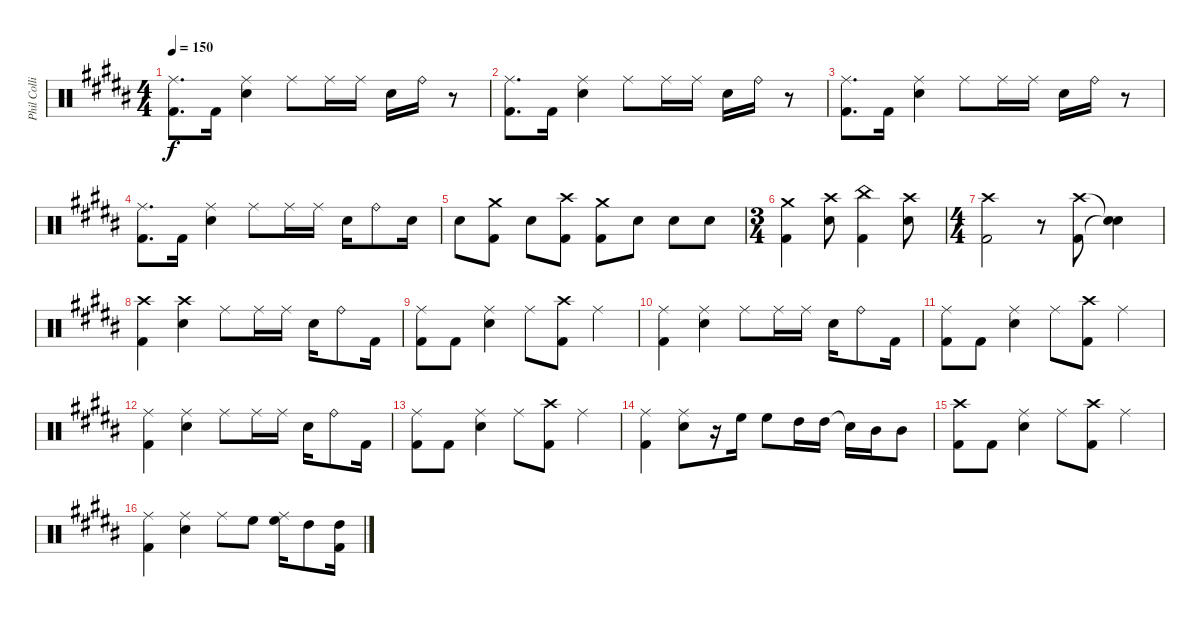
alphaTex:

\track ("Phil Collins [Drums]" "Phil Colli") {instrument percussion}
\staff {score}
\articulation defaults
\ts (4 4)
\tempo 150
\clef neutral
\ks b
("Ride (middle)" "Kick (hit) 2").8{d dy f} "Kick (hit) 2".16 ("Ride (middle)" "Electric Snare (hit)").4 "Ride (middle)".8 "Ride (middle)".16 "Ride (middle)".16 "Electric Snare (hit)".16 "Ride (bell)".16 r.8 |
("Ride (middle)" "Kick (hit) 2").8{d} "Kick (hit) 2".16 ("Ride (middle)" "Electric Snare (hit)").4 "Ride (middle)".8 "Ride (middle)".16 "Ride (middle)".16 "Electric Snare (hit)".16 "Ride (bell)".16 r.8 |
("Ride (middle)" "Kick (hit) 2").8{d} "Kick (hit) 2".16 ("Ride (middle)" "Electric Snare (hit)").4 "Ride (middle)".8 "Ride (middle)".16 "Ride (middle)".16 "Electric Snare (hit)".16 "Ride (bell)".16 r.8 |
("Ride (middle)" "Kick (hit) 2").8{d} "Kick (hit) 2".16 ("Ride (middle)" "Electric Snare (hit)").4 "Ride (middle)".8 "Ride (middle)".16 "Ride (middle)".16 "Electric Snare (hit)".16 "Ride (bell)".8 "Electric Snare (hit)".16 |
"Electric Snare (hit)".8 ("Crash medium (hit)" "Kick (hit) 2").8 "Electric Snare (hit)".8 ("Crash high (hit)" "Kick (hit) 2").8 ("Crash medium (hit)" "Kick (hit) 2").8 "Electric Snare (hit)".8 "Electric Snare (hit)".8 "Electric Snare (hit)".8 |
\ts (3 4)
("Crash medium (hit)" "Kick (hit) 2").4 ("Crash high (hit)" "Electric Snare (hit)").8 ("China (hit)" "Kick (hit) 2").4 ("Crash high (hit)" "Electric Snare (hit)").8 |
\ts (4 4)
("Crash high (hit)" "Kick (hit) 2").2 r.8 ("Crash high (hit)" "Kick (hit) 2").8 ("Snare (hit)"{t} "Snare (hit)"{t}).4 |
("Crash high (hit)" "Kick (hit) 2").4 ("Crash high (hit)" "Electric Snare (hit)").4 "Ride (middle)".8 "Ride (middle)".16 "Ride (middle)".16 "Electric Snare (hit)".16 "Ride (bell)".8 "Kick (hit) 2".16 |
("Ride (middle)" "Kick (hit) 2").8 "Kick (hit) 2".8 ("Ride (middle)" "Electric Snare (hit)").4 "Ride (middle)".8 ("Crash high (hit)" "Kick (hit) 2").8 "Ride (middle)".4 |
("Ride (middle)" "Kick (hit) 2").4 ("Ride (middle)" "Electric Snare (hit)").4 "Ride (middle)".8 "Ride (middle)".16 "Ride (middle)".16 "Electric Snare (hit)".16 "Ride (bell)".8 "Kick (hit) 2".16 |
("Ride (middle)" "Kick (hit) 2").8 "Kick (hit) 2".8 ("Ride (middle)" "Electric Snare (hit)").4 "Ride (middle)".8 ("Crash high (hit)" "Kick (hit) 2").8 "Ride (middle)".4 |
("Ride (middle)" "Kick (hit) 2").4 ("Ride (middle)" "Electric Snare (hit)").4 "Ride (middle)".8 "Ride (middle)".16 "Ride (middle)".16 "Electric Snare (hit)".16 "Ride (bell)".8 "Kick (hit) 2".16 |
("Ride (middle)" "Kick (hit) 2").8 "Kick (hit) 2".8 ("Ride (middle)" "Electric Snare (hit)").4 "Ride (middle)".8 ("Crash high (hit)" "Kick (hit) 2").8 "Ride (middle)".4 |
("Ride (middle)" "Kick (hit) 2").4 ("Ride (middle)" "Electric Snare (hit)").8 r.16 "High Floor Tom (hit)".16 "High Floor Tom (hit)".8 "High Tom (hit)".16 "High Tom (hit)".16 "Snare (hit)"{t}.16 "Mid Tom (hit)".16 "Mid Tom (hit)".8 |
("Crash high (hit)" "Kick (hit) 2").8 "Kick (hit) 2".8 ("Ride (middle)" "Electric Snare (hit)").4 "Ride (middle)".8 ("Crash high (hit)" "Kick (hit) 2").8 "Ride (middle)".4 |
("Ride (middle)" "Kick (hit) 2").4 ("Ride (middle)" "Electric Snare (hit)").4 "Ride (middle)".8 "High Floor Tom (hit)".8 ("Ride (middle)" "High Floor Tom (hit)").16 "High Tom (hit)".8 ("High Tom (hit)" "Kick (hit) 2").16
